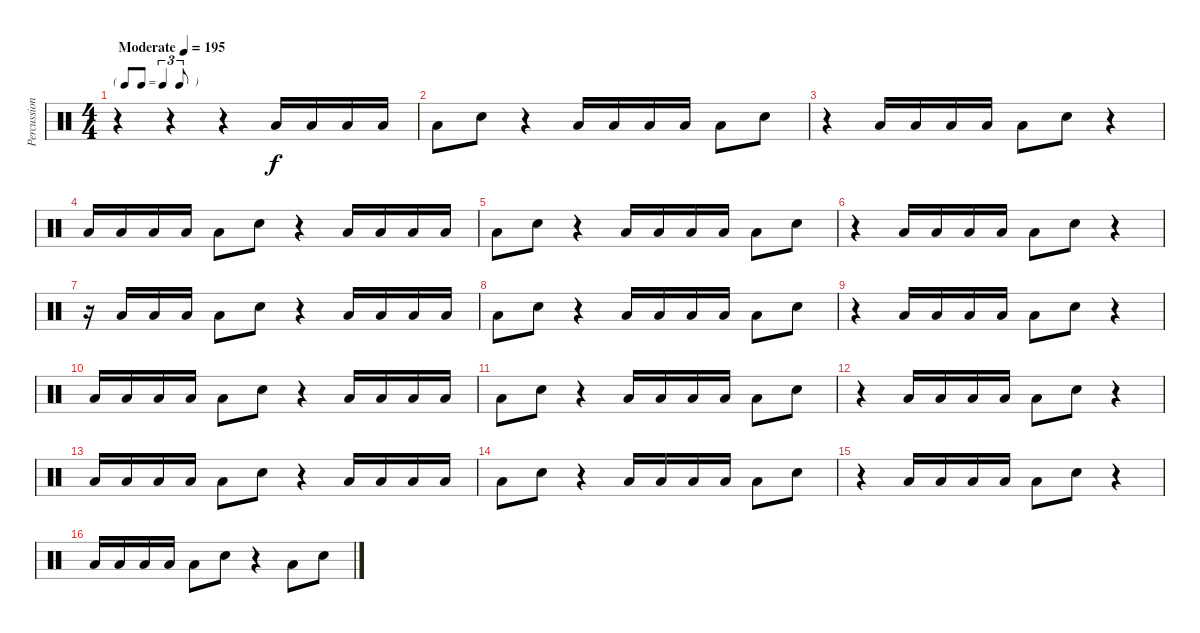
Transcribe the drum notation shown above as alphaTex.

\track ("Percussion" "Percussion") {instrument percussion}
\staff {score}
\articulation defaults
\ts (4 4)
\tf triplet8th
\tempo (195 "Moderate")
\clef neutral
\ks c
r.4{dy f} r.4 r.4 "Low Tom (hit)".16 "Low Tom (hit)".16 "Low Tom (hit)".16 "Low Tom (hit)".16 |
"Low Tom (hit)".8 "Electric Snare (hit)".8 r.4 "Low Tom (hit)".16 "Low Tom (hit)".16 "Low Tom (hit)".16 "Low Tom (hit)".16 "Low Tom (hit)".8 "Electric Snare (hit)".8 |
r.4 "Low Tom (hit)".16 "Low Tom (hit)".16 "Low Tom (hit)".16 "Low Tom (hit)".16 "Low Tom (hit)".8 "Electric Snare (hit)".8 r.4 |
"Low Tom (hit)".16 "Low Tom (hit)".16 "Low Tom (hit)".16 "Low Tom (hit)".16 "Low Tom (hit)".8 "Electric Snare (hit)".8 r.4 "Low Tom (hit)".16 "Low Tom (hit)".16 "Low Tom (hit)".16 "Low Tom (hit)".16 |
"Low Tom (hit)".8 "Electric Snare (hit)".8 r.4 "Low Tom (hit)".16 "Low Tom (hit)".16 "Low Tom (hit)".16 "Low Tom (hit)".16 "Low Tom (hit)".8 "Electric Snare (hit)".8 |
r.4 "Low Tom (hit)".16 "Low Tom (hit)".16 "Low Tom (hit)".16 "Low Tom (hit)".16 "Low Tom (hit)".8 "Electric Snare (hit)".8 r.4 |
r.16 "Low Tom (hit)".16 "Low Tom (hit)".16 "Low Tom (hit)".16 "Low Tom (hit)".8 "Electric Snare (hit)".8 r.4 "Low Tom (hit)".16 "Low Tom (hit)".16 "Low Tom (hit)".16 "Low Tom (hit)".16 |
"Low Tom (hit)".8 "Electric Snare (hit)".8 r.4 "Low Tom (hit)".16 "Low Tom (hit)".16 "Low Tom (hit)".16 "Low Tom (hit)".16 "Low Tom (hit)".8 "Electric Snare (hit)".8 |
r.4 "Low Tom (hit)".16 "Low Tom (hit)".16 "Low Tom (hit)".16 "Low Tom (hit)".16 "Low Tom (hit)".8 "Electric Snare (hit)".8 r.4 |
"Low Tom (hit)".16 "Low Tom (hit)".16 "Low Tom (hit)".16 "Low Tom (hit)".16 "Low Tom (hit)".8 "Electric Snare (hit)".8 r.4 "Low Tom (hit)".16 "Low Tom (hit)".16 "Low Tom (hit)".16 "Low Tom (hit)".16 |
"Low Tom (hit)".8 "Electric Snare (hit)".8 r.4 "Low Tom (hit)".16 "Low Tom (hit)".16 "Low Tom (hit)".16 "Low Tom (hit)".16 "Low Tom (hit)".8 "Electric Snare (hit)".8 |
r.4 "Low Tom (hit)".16 "Low Tom (hit)".16 "Low Tom (hit)".16 "Low Tom (hit)".16 "Low Tom (hit)".8 "Electric Snare (hit)".8 r.4 |
"Low Tom (hit)".16 "Low Tom (hit)".16 "Low Tom (hit)".16 "Low Tom (hit)".16 "Low Tom (hit)".8 "Electric Snare (hit)".8 r.4 "Low Tom (hit)".16 "Low Tom (hit)".16 "Low Tom (hit)".16 "Low Tom (hit)".16 |
"Low Tom (hit)".8 "Electric Snare (hit)".8 r.4 "Low Tom (hit)".16 "Low Tom (hit)".16 "Low Tom (hit)".16 "Low Tom (hit)".16 "Low Tom (hit)".8 "Electric Snare (hit)".8 |
r.4 "Low Tom (hit)".16 "Low Tom (hit)".16 "Low Tom (hit)".16 "Low Tom (hit)".16 "Low Tom (hit)".8 "Electric Snare (hit)".8 r.4 |
"Low Tom (hit)".16 "Low Tom (hit)".16 "Low Tom (hit)".16 "Low Tom (hit)".16 "Low Tom (hit)".8 "Electric Snare (hit)".8 r.4 "Low Tom (hit)".8 "Electric Snare (hit)".8
